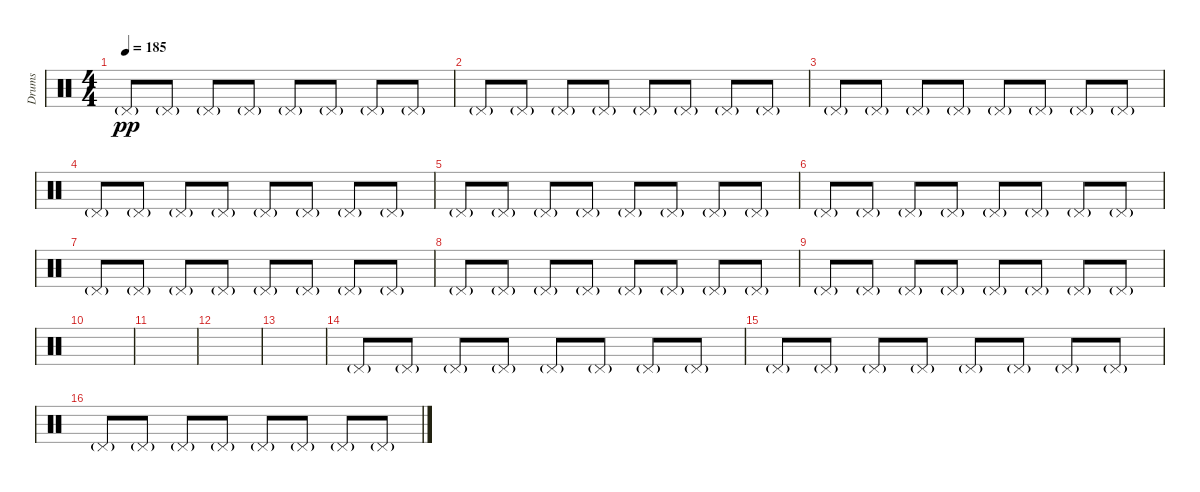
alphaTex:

\track ("Drums" "Drums") {instrument percussion}
\staff {score}
\articulation defaults
\ts (4 4)
\tempo 185
\clef neutral
\ks c "Pedal Hi-Hat (hit)"{g}.8{dy pp} "Pedal Hi-Hat (hit)"{g}.8 "Pedal Hi-Hat (hit)"{g}.8 "Pedal Hi-Hat (hit)"{g}.8 "Pedal Hi-Hat (hit)"{g}.8 "Pedal Hi-Hat (hit)"{g}.8 "Pedal Hi-Hat (hit)"{g}.8 "Pedal Hi-Hat (hit)"{g}.8
|
"Pedal Hi-Hat (hit)"{g}.8 "Pedal Hi-Hat (hit)"{g}.8 "Pedal Hi-Hat (hit)"{g}.8 "Pedal Hi-Hat (hit)"{g}.8 "Pedal Hi-Hat (hit)"{g}.8 "Pedal Hi-Hat (hit)"{g}.8 "Pedal Hi-Hat (hit)"{g}.8 "Pedal Hi-Hat (hit)"{g}.8 |
"Pedal Hi-Hat (hit)"{g}.8 "Pedal Hi-Hat (hit)"{g}.8 "Pedal Hi-Hat (hit)"{g}.8 "Pedal Hi-Hat (hit)"{g}.8 "Pedal Hi-Hat (hit)"{g}.8 "Pedal Hi-Hat (hit)"{g}.8 "Pedal Hi-Hat (hit)"{g}.8 "Pedal Hi-Hat (hit)"{g}.8 |
"Pedal Hi-Hat (hit)"{g}.8 "Pedal Hi-Hat (hit)"{g}.8 "Pedal Hi-Hat (hit)"{g}.8 "Pedal Hi-Hat (hit)"{g}.8 "Pedal Hi-Hat (hit)"{g}.8 "Pedal Hi-Hat (hit)"{g}.8 "Pedal Hi-Hat (hit)"{g}.8 "Pedal Hi-Hat (hit)"{g}.8 |
"Pedal Hi-Hat (hit)"{g}.8 "Pedal Hi-Hat (hit)"{g}.8 "Pedal Hi-Hat (hit)"{g}.8 "Pedal Hi-Hat (hit)"{g}.8 "Pedal Hi-Hat (hit)"{g}.8 "Pedal Hi-Hat (hit)"{g}.8 "Pedal Hi-Hat (hit)"{g}.8 "Pedal Hi-Hat (hit)"{g}.8 |
"Pedal Hi-Hat (hit)"{g}.8 "Pedal Hi-Hat (hit)"{g}.8 "Pedal Hi-Hat (hit)"{g}.8 "Pedal Hi-Hat (hit)"{g}.8 "Pedal Hi-Hat (hit)"{g}.8 "Pedal Hi-Hat (hit)"{g}.8 "Pedal Hi-Hat (hit)"{g}.8 "Pedal Hi-Hat (hit)"{g}.8 |
"Pedal Hi-Hat (hit)"{g}.8 "Pedal Hi-Hat (hit)"{g}.8 "Pedal Hi-Hat (hit)"{g}.8 "Pedal Hi-Hat (hit)"{g}.8 "Pedal Hi-Hat (hit)"{g}.8 "Pedal Hi-Hat (hit)"{g}.8 "Pedal Hi-Hat (hit)"{g}.8 "Pedal Hi-Hat (hit)"{g}.8 |
"Pedal Hi-Hat (hit)"{g}.8 "Pedal Hi-Hat (hit)"{g}.8 "Pedal Hi-Hat (hit)"{g}.8 "Pedal Hi-Hat (hit)"{g}.8 "Pedal Hi-Hat (hit)"{g}.8 "Pedal Hi-Hat (hit)"{g}.8 "Pedal Hi-Hat (hit)"{g}.8 "Pedal Hi-Hat (hit)"{g}.8 |
"Pedal Hi-Hat (hit)"{g}.8 "Pedal Hi-Hat (hit)"{g}.8 "Pedal Hi-Hat (hit)"{g}.8 "Pedal Hi-Hat (hit)"{g}.8 "Pedal Hi-Hat (hit)"{g}.8 "Pedal Hi-Hat (hit)"{g}.8 "Pedal Hi-Hat (hit)"{g}.8 "Pedal Hi-Hat (hit)"{g}.8 |
|
|
|
|
"Pedal Hi-Hat (hit)"{g}.8 "Pedal Hi-Hat (hit)"{g}.8 "Pedal Hi-Hat (hit)"{g}.8 "Pedal Hi-Hat (hit)"{g}.8 "Pedal Hi-Hat (hit)"{g}.8 "Pedal Hi-Hat (hit)"{g}.8 "Pedal Hi-Hat (hit)"{g}.8 "Pedal Hi-Hat (hit)"{g}.8 |
"Pedal Hi-Hat (hit)"{g}.8 "Pedal Hi-Hat (hit)"{g}.8 "Pedal Hi-Hat (hit)"{g}.8 "Pedal Hi-Hat (hit)"{g}.8 "Pedal Hi-Hat (hit)"{g}.8 "Pedal Hi-Hat (hit)"{g}.8 "Pedal Hi-Hat (hit)"{g}.8 "Pedal Hi-Hat (hit)"{g}.8 |
"Pedal Hi-Hat (hit)"{g}.8 "Pedal Hi-Hat (hit)"{g}.8 "Pedal Hi-Hat (hit)"{g}.8 "Pedal Hi-Hat (hit)"{g}.8 "Pedal Hi-Hat (hit)"{g}.8 "Pedal Hi-Hat (hit)"{g}.8 "Pedal Hi-Hat (hit)"{g}.8 "Pedal Hi-Hat (hit)"{g}.8
